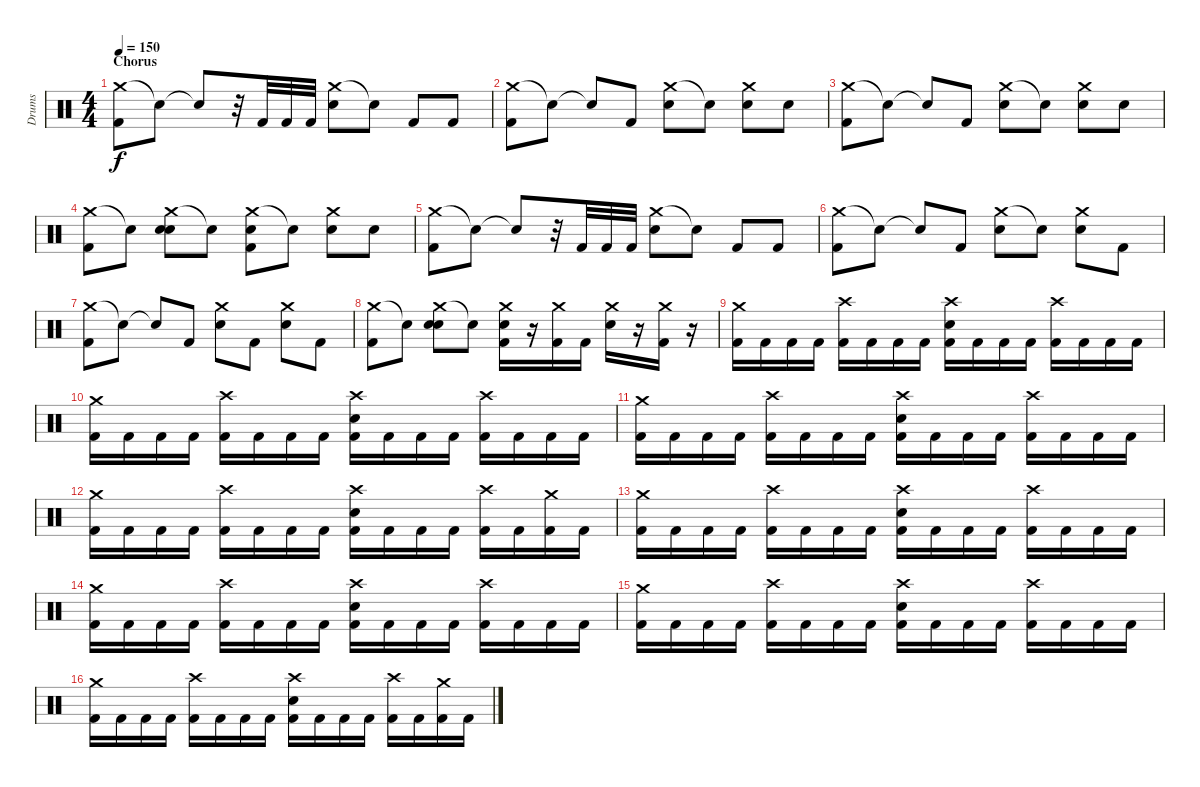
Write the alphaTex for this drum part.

\track ("Drums" "Drums") {instrument percussion}
\staff {score}
\articulation defaults
\ts (4 4)
\section ("" "Chorus")
\tempo 150
\clef neutral
\ks c
("Crash medium (hit)" "Kick (hit) 2").8{dy f} "Snare (hit)"{t}.8 "Snare (hit)"{t}.8 r.32 "Kick (hit) 2".32 "Kick (hit) 2".32 "Kick (hit) 2".32 ("Crash medium (hit)" "Electric Snare (hit)").8 "Snare (hit)"{t}.8 "Kick (hit) 2".8 "Kick (hit) 2".8 |
("Crash medium (hit)" "Kick (hit) 2").8 "Snare (hit)"{t}.8 "Snare (hit)"{t}.8 "Kick (hit) 2".8 ("Crash medium (hit)" "Electric Snare (hit)").8 "Snare (hit)"{t}.8 ("Crash medium (hit)" "Electric Snare (hit)").8 "Electric Snare (hit)".8 |
("Crash medium (hit)" "Kick (hit) 2").8 "Snare (hit)"{t}.8 "Snare (hit)"{t}.8 "Kick (hit) 2".8 ("Crash medium (hit)" "Electric Snare (hit)").8 "Snare (hit)"{t}.8 ("Crash medium (hit)" "Electric Snare (hit)").8 "Electric Snare (hit)".8 |
("Crash medium (hit)" "Kick (hit) 2").8 "Snare (hit)"{t}.8 ("Crash medium (hit)" "Electric Snare (hit)" "Snare (hit)").8 "Snare (hit)"{t}.8 ("Crash medium (hit)" "Electric Snare (hit)" "Kick (hit) 2").8 "Snare (hit)"{t}.8 ("Crash medium (hit)" "Electric Snare (hit)").8 "Electric Snare (hit)".8 |
("Crash medium (hit)" "Kick (hit) 2").8 "Snare (hit)"{t}.8 "Snare (hit)"{t}.8 r.32 "Kick (hit) 2".32 "Kick (hit) 2".32 "Kick (hit) 2".32 ("Crash medium (hit)" "Electric Snare (hit)").8 "Snare (hit)"{t}.8 "Kick (hit) 2".8 "Kick (hit) 2".8 |
("Crash medium (hit)" "Kick (hit) 2").8 "Snare (hit)"{t}.8 "Snare (hit)"{t}.8 "Kick (hit) 2".8 ("Crash medium (hit)" "Electric Snare (hit)").8 "Snare (hit)"{t}.8 ("Crash medium (hit)" "Electric Snare (hit)").8 "Kick (hit) 2".8 |
("Crash medium (hit)" "Kick (hit) 2").8 "Snare (hit)"{t}.8 "Snare (hit)"{t}.8 "Kick (hit) 2".8 ("Crash medium (hit)" "Electric Snare (hit)").8 "Kick (hit) 2".8 ("Crash medium (hit)" "Electric Snare (hit)").8 "Kick (hit) 2".8 |
("Crash medium (hit)" "Kick (hit) 2").8 "Snare (hit)"{t}.8 ("Crash medium (hit)" "Electric Snare (hit)" "Snare (hit)").8 "Snare (hit)"{t}.8 ("Crash medium (hit)" "Electric Snare (hit)" "Kick (hit) 2").16 r.16 ("Crash medium (hit)" "Kick (hit) 2").16 "Kick (hit) 2".16 ("Crash medium (hit)" "Electric Snare (hit)").16 r.16 ("Crash medium (hit)" "Kick (hit) 2").16 r.16 |
("Crash medium (hit)" "Kick (hit) 2").16 "Kick (hit) 2".16 "Kick (hit) 2".16 "Kick (hit) 2".16 ("Crash high (hit)" "Kick (hit) 2").16 "Kick (hit) 2".16 "Kick (hit) 2".16 "Kick (hit) 2".16 ("Crash high (hit)" "Electric Snare (hit)" "Kick (hit) 2").16 "Kick (hit) 2".16 "Kick (hit) 2".16 "Kick (hit) 2".16 ("Crash high (hit)" "Kick (hit) 2").16 "Kick (hit) 2".16 "Kick (hit) 2".16 "Kick (hit) 2".16 |
("Crash medium (hit)" "Kick (hit) 2").16 "Kick (hit) 2".16 "Kick (hit) 2".16 "Kick (hit) 2".16 ("Crash high (hit)" "Kick (hit) 2").16 "Kick (hit) 2".16 "Kick (hit) 2".16 "Kick (hit) 2".16 ("Crash high (hit)" "Electric Snare (hit)" "Kick (hit) 2").16 "Kick (hit) 2".16 "Kick (hit) 2".16 "Kick (hit) 2".16 ("Crash high (hit)" "Kick (hit) 2").16 "Kick (hit) 2".16 "Kick (hit) 2".16 "Kick (hit) 2".16 |
("Crash medium (hit)" "Kick (hit) 2").16 "Kick (hit) 2".16 "Kick (hit) 2".16 "Kick (hit) 2".16 ("Crash high (hit)" "Kick (hit) 2").16 "Kick (hit) 2".16 "Kick (hit) 2".16 "Kick (hit) 2".16 ("Crash high (hit)" "Electric Snare (hit)" "Kick (hit) 2").16 "Kick (hit) 2".16 "Kick (hit) 2".16 "Kick (hit) 2".16 ("Crash high (hit)" "Kick (hit) 2").16 "Kick (hit) 2".16 "Kick (hit) 2".16 "Kick (hit) 2".16 |
("Crash medium (hit)" "Kick (hit) 2").16 "Kick (hit) 2".16 "Kick (hit) 2".16 "Kick (hit) 2".16 ("Crash high (hit)" "Kick (hit) 2").16 "Kick (hit) 2".16 "Kick (hit) 2".16 "Kick (hit) 2".16 ("Crash high (hit)" "Electric Snare (hit)" "Kick (hit) 2").16 "Kick (hit) 2".16 "Kick (hit) 2".16 "Kick (hit) 2".16 ("Crash high (hit)" "Kick (hit) 2").16 "Kick (hit) 2".16 ("Crash medium (hit)" "Kick (hit) 2").16 "Kick (hit) 2".16 |
("Crash medium (hit)" "Kick (hit) 2").16 "Kick (hit) 2".16 "Kick (hit) 2".16 "Kick (hit) 2".16 ("Crash high (hit)" "Kick (hit) 2").16 "Kick (hit) 2".16 "Kick (hit) 2".16 "Kick (hit) 2".16 ("Crash high (hit)" "Electric Snare (hit)" "Kick (hit) 2").16 "Kick (hit) 2".16 "Kick (hit) 2".16 "Kick (hit) 2".16 ("Crash high (hit)" "Kick (hit) 2").16 "Kick (hit) 2".16 "Kick (hit) 2".16 "Kick (hit) 2".16 |
("Crash medium (hit)" "Kick (hit) 2").16 "Kick (hit) 2".16 "Kick (hit) 2".16 "Kick (hit) 2".16 ("Crash high (hit)" "Kick (hit) 2").16 "Kick (hit) 2".16 "Kick (hit) 2".16 "Kick (hit) 2".16 ("Crash high (hit)" "Electric Snare (hit)" "Kick (hit) 2").16 "Kick (hit) 2".16 "Kick (hit) 2".16 "Kick (hit) 2".16 ("Crash high (hit)" "Kick (hit) 2").16 "Kick (hit) 2".16 "Kick (hit) 2".16 "Kick (hit) 2".16 |
("Crash medium (hit)" "Kick (hit) 2").16 "Kick (hit) 2".16 "Kick (hit) 2".16 "Kick (hit) 2".16 ("Crash high (hit)" "Kick (hit) 2").16 "Kick (hit) 2".16 "Kick (hit) 2".16 "Kick (hit) 2".16 ("Crash high (hit)" "Electric Snare (hit)" "Kick (hit) 2").16 "Kick (hit) 2".16 "Kick (hit) 2".16 "Kick (hit) 2".16 ("Crash high (hit)" "Kick (hit) 2").16 "Kick (hit) 2".16 "Kick (hit) 2".16 "Kick (hit) 2".16 |
("Crash medium (hit)" "Kick (hit) 2").16 "Kick (hit) 2".16 "Kick (hit) 2".16 "Kick (hit) 2".16 ("Crash high (hit)" "Kick (hit) 2").16 "Kick (hit) 2".16 "Kick (hit) 2".16 "Kick (hit) 2".16 ("Crash high (hit)" "Electric Snare (hit)" "Kick (hit) 2").16 "Kick (hit) 2".16 "Kick (hit) 2".16 "Kick (hit) 2".16 ("Crash high (hit)" "Kick (hit) 2").16 "Kick (hit) 2".16 ("Crash medium (hit)" "Kick (hit) 2").16 "Kick (hit) 2".16
